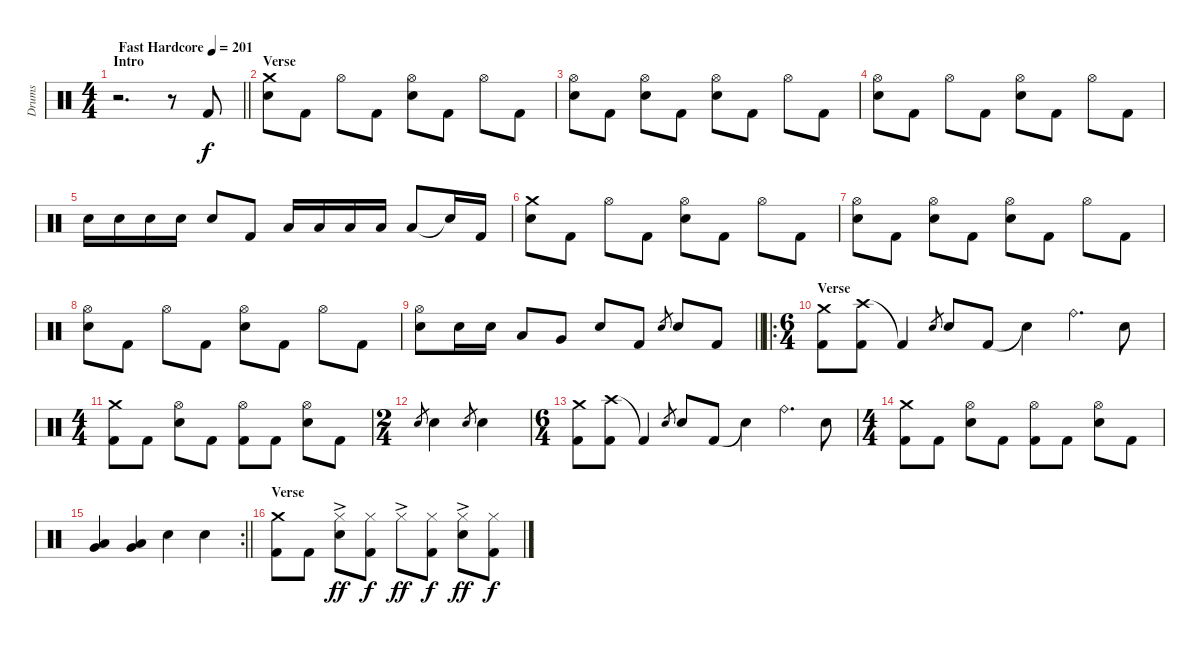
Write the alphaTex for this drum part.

\track ("Drums" "Drums") {instrument percussion}
\staff {score}
\articulation defaults
\ts (4 4)
\section ("" "Intro")
\tempo (201 "Fast Hardcore")
\clef neutral
\barLineRight lightlight
\ks c
r.2{d dy f} r.8 "Kick (hit) 2".8 |
\section ("" "Verse")
("Crash medium (hit)" "Electric Snare (hit)").8 "Kick (hit) 2".8 "Hi-Hat (open)".8 "Kick (hit) 2".8 ("Hi-Hat (open)" "Electric Snare (hit)").8 "Kick (hit) 2".8 "Hi-Hat (open)".8 "Kick (hit) 2".8 |
("Hi-Hat (open)" "Electric Snare (hit)").8 "Kick (hit) 2".8 ("Hi-Hat (open)" "Electric Snare (hit)").8 "Kick (hit) 2".8 ("Hi-Hat (open)" "Electric Snare (hit)").8 "Kick (hit) 2".8 "Hi-Hat (open)".8 "Kick (hit) 2".8 |
("Hi-Hat (open)" "Electric Snare (hit)").8 "Kick (hit) 2".8 "Hi-Hat (open)".8 "Kick (hit) 2".8 ("Hi-Hat (open)" "Electric Snare (hit)").8 "Kick (hit) 2".8 "Hi-Hat (open)".8 "Kick (hit) 2".8 |
"Electric Snare (hit)".16 "Electric Snare (hit)".16 "Electric Snare (hit)".16 "Electric Snare (hit)".16 "Electric Snare (hit)".8 "Kick (hit) 2".8 "Low Tom (hit)".16 "Low Tom (hit)".16 "Low Tom (hit)".16 "Low Tom (hit)".16 "Low Tom (hit)".8 "Snare (hit)"{t}.16 "Kick (hit) 2".16 |
("Crash medium (hit)" "Electric Snare (hit)").8 "Kick (hit) 2".8 "Hi-Hat (open)".8 "Kick (hit) 2".8 ("Hi-Hat (open)" "Electric Snare (hit)").8 "Kick (hit) 2".8 "Hi-Hat (open)".8 "Kick (hit) 2".8 |
("Hi-Hat (open)" "Electric Snare (hit)").8 "Kick (hit) 2".8 ("Hi-Hat (open)" "Electric Snare (hit)").8 "Kick (hit) 2".8 ("Hi-Hat (open)" "Electric Snare (hit)").8 "Kick (hit) 2".8 "Hi-Hat (open)".8 "Kick (hit) 2".8 |
("Hi-Hat (open)" "Electric Snare (hit)").8 "Kick (hit) 2".8 "Hi-Hat (open)".8 "Kick (hit) 2".8 ("Hi-Hat (open)" "Electric Snare (hit)").8 "Kick (hit) 2".8 "Hi-Hat (open)".8 "Kick (hit) 2".8 |
\barLineRight lightlight
("Hi-Hat (open)" "Electric Snare (hit)").8 "Electric Snare (hit)".16 "Electric Snare (hit)".16 "Low Tom (hit)".8 "Very Low Tom (hit)".8 "Electric Snare (hit)".8 "Kick (hit) 2".8 "Electric Snare (hit)".8{gr} "Electric Snare (hit)".8 "Kick (hit) 2".8 |
\ro
\ts (6 4)
\section ("" "Verse")
("Crash medium (hit)" "Kick (hit) 2").8 ("Crash high (hit)" "Kick (hit) 2").8 "Kick (hit) 2"{t}.4 "Electric Snare (hit)".8{gr} "Electric Snare (hit)".8 "Kick (hit) 2".8 "Snare (hit)"{t}.4 "Ride (bell)".4{d} "Electric Snare (hit)".8 |
\ts (4 4)
("Crash medium (hit)" "Kick (hit) 2").8 "Kick (hit) 2".8 ("Hi-Hat (open)" "Electric Snare (hit)").8 "Kick (hit) 2".8 ("Hi-Hat (open)" "Kick (hit) 2").8 "Kick (hit) 2".8 ("Hi-Hat (open)" "Electric Snare (hit)").8 "Kick (hit) 2".8 |
\ts (2 4)
"Electric Snare (hit)".8{gr} "Electric Snare (hit)".4 "Electric Snare (hit)".8{gr} "Electric Snare (hit)".4 |
\ts (6 4)
("Crash medium (hit)" "Kick (hit) 2").8 ("Crash high (hit)" "Kick (hit) 2").8 "Kick (hit) 2"{t}.4 "Electric Snare (hit)".8{gr} "Electric Snare (hit)".8 "Kick (hit) 2".8 "Snare (hit)"{t}.4 "Ride (bell)".4{d} "Electric Snare (hit)".8 |
\ts (4 4)
("Crash medium (hit)" "Kick (hit) 2").8 "Kick (hit) 2".8 ("Hi-Hat (open)" "Electric Snare (hit)").8 "Kick (hit) 2".8 ("Hi-Hat (open)" "Kick (hit) 2").8 "Kick (hit) 2".8 ("Hi-Hat (open)" "Electric Snare (hit)").8 "Kick (hit) 2".8 |
\rc 2
\barLineRight lightlight
("Very Low Tom (hit)" "Low Floor Tom (hit)").4 ("Very Low Tom (hit)" "Low Floor Tom (hit)").4 "Electric Snare (hit)".4 "Electric Snare (hit)".4 |
\section ("" "Verse")
("Crash medium (hit)" "Kick (hit) 2").8 "Kick (hit) 2".8 ("Hi-Hat (closed)"{ac} "Electric Snare (hit)").8{dy ff} ("Hi-Hat (closed)" "Kick (hit) 2").8{dy f} "Hi-Hat (closed)"{ac}.8{dy ff} ("Hi-Hat (closed)" "Kick (hit) 2").8{dy f} ("Hi-Hat (closed)"{ac} "Electric Snare (hit)").8{dy ff} ("Hi-Hat (closed)" "Kick (hit) 2").8{dy f}
